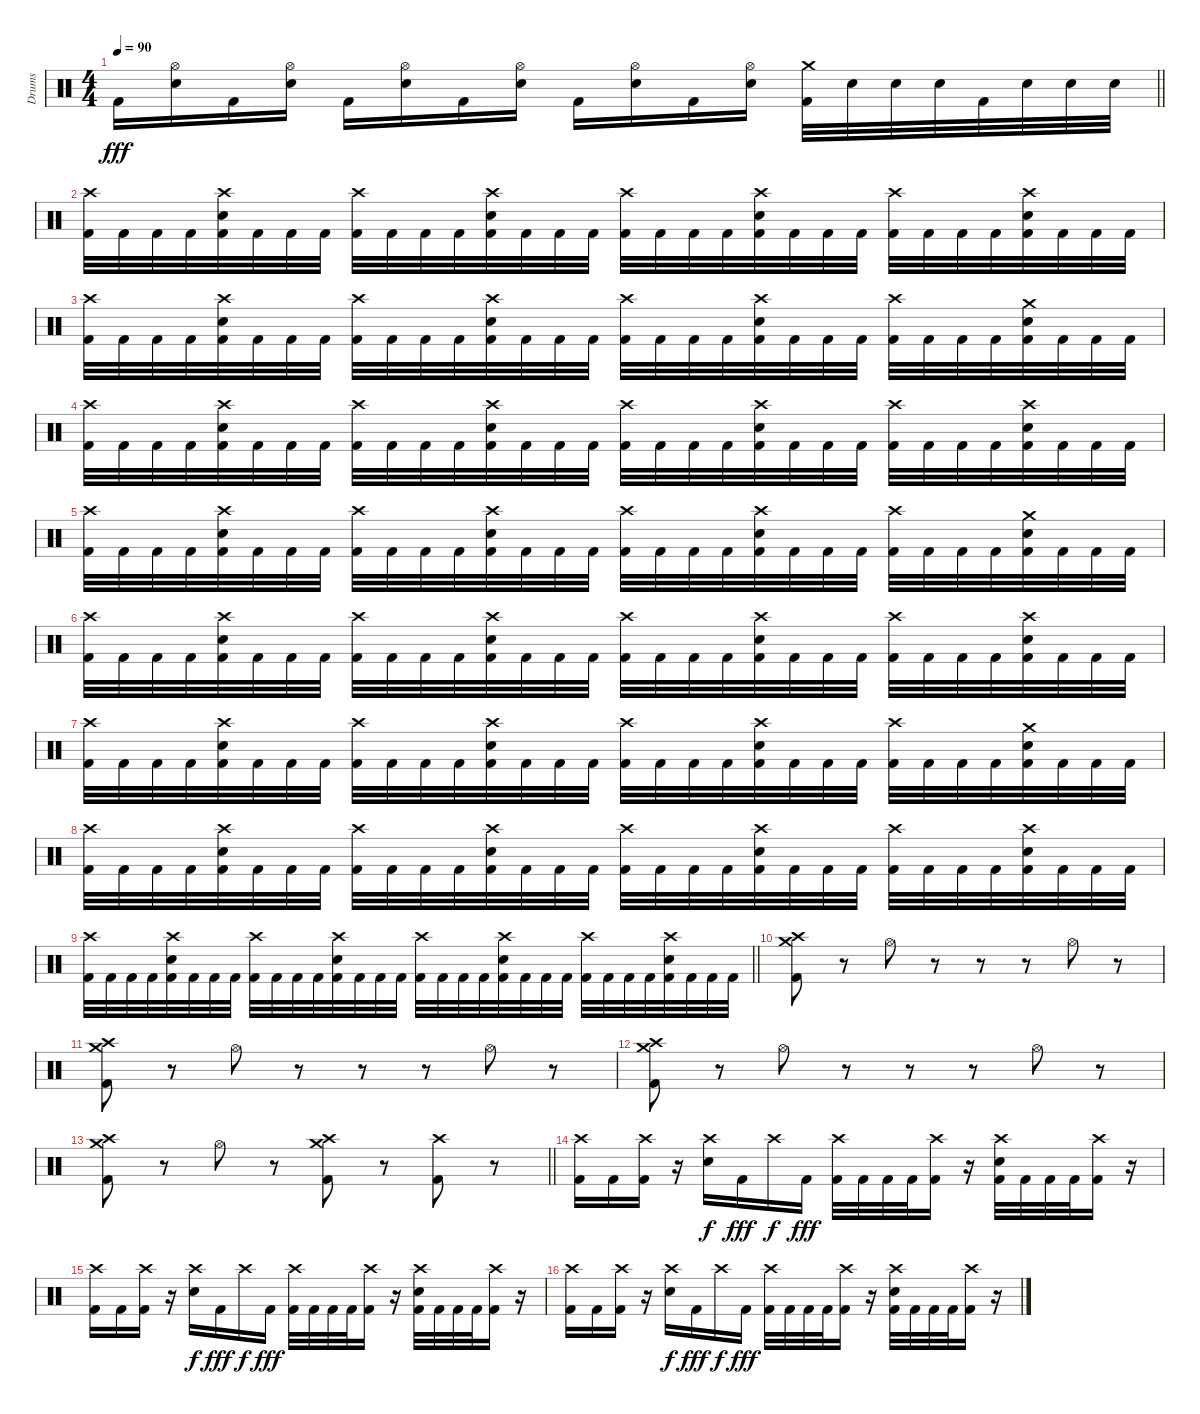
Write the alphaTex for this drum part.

\track ("Drums" "Drums") {instrument percussion}
\staff {score}
\articulation defaults
\ts (4 4)
\tempo 90
\clef neutral
\barLineRight lightlight
\ks c "Kick (hit) 2".16{dy fff}
("Hi-Hat (open)" "Electric Snare (hit)").16 "Kick (hit) 2".16 ("Hi-Hat (open)" "Electric Snare (hit)").16 "Kick (hit) 2".16 ("Hi-Hat (open)" "Electric Snare (hit)").16 "Kick (hit) 2".16 ("Hi-Hat (open)" "Electric Snare (hit)").16 "Kick (hit) 2".16 ("Hi-Hat (open)" "Electric Snare (hit)").16 "Kick (hit) 2".16 ("Hi-Hat (open)" "Electric Snare (hit)").16 ("Crash medium (hit)" "Kick (hit) 2").32 "Electric Snare (hit)".32 "Electric Snare (hit)".32 "Electric Snare (hit)".32 "Kick (hit) 2".32 "Electric Snare (hit)".32 "Electric Snare (hit)".32 "Electric Snare (hit)".32 |
\section ("" "")
("Crash high (hit)" "Kick (hit) 2").32 "Kick (hit) 2".32 "Kick (hit) 2".32 "Kick (hit) 2".32 ("Crash high (hit)" "Electric Snare (hit)" "Kick (hit) 2").32 "Kick (hit) 2".32 "Kick (hit) 2".32 "Kick (hit) 2".32 ("Crash high (hit)" "Kick (hit) 2").32 "Kick (hit) 2".32 "Kick (hit) 2".32 "Kick (hit) 2".32 ("Crash high (hit)" "Electric Snare (hit)" "Kick (hit) 2").32 "Kick (hit) 2".32 "Kick (hit) 2".32 "Kick (hit) 2".32 ("Crash high (hit)" "Kick (hit) 2").32 "Kick (hit) 2".32 "Kick (hit) 2".32 "Kick (hit) 2".32 ("Crash high (hit)" "Electric Snare (hit)" "Kick (hit) 2").32 "Kick (hit) 2".32 "Kick (hit) 2".32 "Kick (hit) 2".32 ("Crash high (hit)" "Kick (hit) 2").32 "Kick (hit) 2".32 "Kick (hit) 2".32 "Kick (hit) 2".32 ("Crash high (hit)" "Electric Snare (hit)" "Kick (hit) 2").32 "Kick (hit) 2".32 "Kick (hit) 2".32 "Kick (hit) 2".32 |
("Crash high (hit)" "Kick (hit) 2").32 "Kick (hit) 2".32 "Kick (hit) 2".32 "Kick (hit) 2".32 ("Crash high (hit)" "Electric Snare (hit)" "Kick (hit) 2").32 "Kick (hit) 2".32 "Kick (hit) 2".32 "Kick (hit) 2".32 ("Crash high (hit)" "Kick (hit) 2").32 "Kick (hit) 2".32 "Kick (hit) 2".32 "Kick (hit) 2".32 ("Crash high (hit)" "Electric Snare (hit)" "Kick (hit) 2").32 "Kick (hit) 2".32 "Kick (hit) 2".32 "Kick (hit) 2".32 ("Crash high (hit)" "Kick (hit) 2").32 "Kick (hit) 2".32 "Kick (hit) 2".32 "Kick (hit) 2".32 ("Crash high (hit)" "Electric Snare (hit)" "Kick (hit) 2").32 "Kick (hit) 2".32 "Kick (hit) 2".32 "Kick (hit) 2".32 ("Crash high (hit)" "Kick (hit) 2").32 "Kick (hit) 2".32 "Kick (hit) 2".32 "Kick (hit) 2".32 ("Crash medium (hit)" "Electric Snare (hit)" "Kick (hit) 2").32 "Kick (hit) 2".32 "Kick (hit) 2".32 "Kick (hit) 2".32 |
("Crash high (hit)" "Kick (hit) 2").32 "Kick (hit) 2".32 "Kick (hit) 2".32 "Kick (hit) 2".32 ("Crash high (hit)" "Electric Snare (hit)" "Kick (hit) 2").32 "Kick (hit) 2".32 "Kick (hit) 2".32 "Kick (hit) 2".32 ("Crash high (hit)" "Kick (hit) 2").32 "Kick (hit) 2".32 "Kick (hit) 2".32 "Kick (hit) 2".32 ("Crash high (hit)" "Electric Snare (hit)" "Kick (hit) 2").32 "Kick (hit) 2".32 "Kick (hit) 2".32 "Kick (hit) 2".32 ("Crash high (hit)" "Kick (hit) 2").32 "Kick (hit) 2".32 "Kick (hit) 2".32 "Kick (hit) 2".32 ("Crash high (hit)" "Electric Snare (hit)" "Kick (hit) 2").32 "Kick (hit) 2".32 "Kick (hit) 2".32 "Kick (hit) 2".32 ("Crash high (hit)" "Kick (hit) 2").32 "Kick (hit) 2".32 "Kick (hit) 2".32 "Kick (hit) 2".32 ("Crash high (hit)" "Electric Snare (hit)" "Kick (hit) 2").32 "Kick (hit) 2".32 "Kick (hit) 2".32 "Kick (hit) 2".32 |
("Crash high (hit)" "Kick (hit) 2").32 "Kick (hit) 2".32 "Kick (hit) 2".32 "Kick (hit) 2".32 ("Crash high (hit)" "Electric Snare (hit)" "Kick (hit) 2").32 "Kick (hit) 2".32 "Kick (hit) 2".32 "Kick (hit) 2".32 ("Crash high (hit)" "Kick (hit) 2").32 "Kick (hit) 2".32 "Kick (hit) 2".32 "Kick (hit) 2".32 ("Crash high (hit)" "Electric Snare (hit)" "Kick (hit) 2").32 "Kick (hit) 2".32 "Kick (hit) 2".32 "Kick (hit) 2".32 ("Crash high (hit)" "Kick (hit) 2").32 "Kick (hit) 2".32 "Kick (hit) 2".32 "Kick (hit) 2".32 ("Crash high (hit)" "Electric Snare (hit)" "Kick (hit) 2").32 "Kick (hit) 2".32 "Kick (hit) 2".32 "Kick (hit) 2".32 ("Crash high (hit)" "Kick (hit) 2").32 "Kick (hit) 2".32 "Kick (hit) 2".32 "Kick (hit) 2".32 ("Crash medium (hit)" "Electric Snare (hit)" "Kick (hit) 2").32 "Kick (hit) 2".32 "Kick (hit) 2".32 "Kick (hit) 2".32 |
("Crash high (hit)" "Kick (hit) 2").32 "Kick (hit) 2".32 "Kick (hit) 2".32 "Kick (hit) 2".32 ("Crash high (hit)" "Electric Snare (hit)" "Kick (hit) 2").32 "Kick (hit) 2".32 "Kick (hit) 2".32 "Kick (hit) 2".32 ("Crash high (hit)" "Kick (hit) 2").32 "Kick (hit) 2".32 "Kick (hit) 2".32 "Kick (hit) 2".32 ("Crash high (hit)" "Electric Snare (hit)" "Kick (hit) 2").32 "Kick (hit) 2".32 "Kick (hit) 2".32 "Kick (hit) 2".32 ("Crash high (hit)" "Kick (hit) 2").32 "Kick (hit) 2".32 "Kick (hit) 2".32 "Kick (hit) 2".32 ("Crash high (hit)" "Electric Snare (hit)" "Kick (hit) 2").32 "Kick (hit) 2".32 "Kick (hit) 2".32 "Kick (hit) 2".32 ("Crash high (hit)" "Kick (hit) 2").32 "Kick (hit) 2".32 "Kick (hit) 2".32 "Kick (hit) 2".32 ("Crash high (hit)" "Electric Snare (hit)" "Kick (hit) 2").32 "Kick (hit) 2".32 "Kick (hit) 2".32 "Kick (hit) 2".32 |
("Crash high (hit)" "Kick (hit) 2").32 "Kick (hit) 2".32 "Kick (hit) 2".32 "Kick (hit) 2".32 ("Crash high (hit)" "Electric Snare (hit)" "Kick (hit) 2").32 "Kick (hit) 2".32 "Kick (hit) 2".32 "Kick (hit) 2".32 ("Crash high (hit)" "Kick (hit) 2").32 "Kick (hit) 2".32 "Kick (hit) 2".32 "Kick (hit) 2".32 ("Crash high (hit)" "Electric Snare (hit)" "Kick (hit) 2").32 "Kick (hit) 2".32 "Kick (hit) 2".32 "Kick (hit) 2".32 ("Crash high (hit)" "Kick (hit) 2").32 "Kick (hit) 2".32 "Kick (hit) 2".32 "Kick (hit) 2".32 ("Crash high (hit)" "Electric Snare (hit)" "Kick (hit) 2").32 "Kick (hit) 2".32 "Kick (hit) 2".32 "Kick (hit) 2".32 ("Crash high (hit)" "Kick (hit) 2").32 "Kick (hit) 2".32 "Kick (hit) 2".32 "Kick (hit) 2".32 ("Crash medium (hit)" "Electric Snare (hit)" "Kick (hit) 2").32 "Kick (hit) 2".32 "Kick (hit) 2".32 "Kick (hit) 2".32 |
("Crash high (hit)" "Kick (hit) 2").32 "Kick (hit) 2".32 "Kick (hit) 2".32 "Kick (hit) 2".32 ("Crash high (hit)" "Electric Snare (hit)" "Kick (hit) 2").32 "Kick (hit) 2".32 "Kick (hit) 2".32 "Kick (hit) 2".32 ("Crash high (hit)" "Kick (hit) 2").32 "Kick (hit) 2".32 "Kick (hit) 2".32 "Kick (hit) 2".32 ("Crash high (hit)" "Electric Snare (hit)" "Kick (hit) 2").32 "Kick (hit) 2".32 "Kick (hit) 2".32 "Kick (hit) 2".32 ("Crash high (hit)" "Kick (hit) 2").32 "Kick (hit) 2".32 "Kick (hit) 2".32 "Kick (hit) 2".32 ("Crash high (hit)" "Electric Snare (hit)" "Kick (hit) 2").32 "Kick (hit) 2".32 "Kick (hit) 2".32 "Kick (hit) 2".32 ("Crash high (hit)" "Kick (hit) 2").32 "Kick (hit) 2".32 "Kick (hit) 2".32 "Kick (hit) 2".32 ("Crash high (hit)" "Electric Snare (hit)" "Kick (hit) 2").32 "Kick (hit) 2".32 "Kick (hit) 2".32 "Kick (hit) 2".32 |
\barLineRight lightlight
("Crash high (hit)" "Kick (hit) 2").32 "Kick (hit) 2".32 "Kick (hit) 2".32 "Kick (hit) 2".32 ("Crash high (hit)" "Electric Snare (hit)" "Kick (hit) 2").32 "Kick (hit) 2".32 "Kick (hit) 2".32 "Kick (hit) 2".32 ("Crash high (hit)" "Kick (hit) 2").32 "Kick (hit) 2".32 "Kick (hit) 2".32 "Kick (hit) 2".32 ("Crash high (hit)" "Electric Snare (hit)" "Kick (hit) 2").32 "Kick (hit) 2".32 "Kick (hit) 2".32 "Kick (hit) 2".32 ("Crash high (hit)" "Kick (hit) 2").32 "Kick (hit) 2".32 "Kick (hit) 2".32 "Kick (hit) 2".32 ("Crash high (hit)" "Electric Snare (hit)" "Kick (hit) 2").32 "Kick (hit) 2".32 "Kick (hit) 2".32 "Kick (hit) 2".32 ("Crash high (hit)" "Kick (hit) 2").32 "Kick (hit) 2".32 "Kick (hit) 2".32 "Kick (hit) 2".32 ("Crash high (hit)" "Electric Snare (hit)" "Kick (hit) 2").32 "Kick (hit) 2".32 "Kick (hit) 2".32 "Kick (hit) 2".32 |
\section ("" "")
("Crash high (hit)" "Crash medium (hit)" "Kick (hit) 2").8 r.8 "Hi-Hat (open)".8 r.8 r.8 r.8 "Hi-Hat (open)".8 r.8 |
("Crash high (hit)" "Crash medium (hit)" "Kick (hit) 2").8 r.8 "Hi-Hat (open)".8 r.8 r.8 r.8 "Hi-Hat (open)".8 r.8 |
("Crash high (hit)" "Crash medium (hit)" "Kick (hit) 2").8 r.8 "Hi-Hat (open)".8 r.8 r.8 r.8 "Hi-Hat (open)".8 r.8 |
\barLineRight lightlight
("Crash high (hit)" "Crash medium (hit)" "Kick (hit) 2").8 r.8 "Hi-Hat (open)".8 r.8 ("Crash high (hit)" "Crash medium (hit)" "Kick (hit) 2").8 r.8 ("Crash high (hit)" "Kick (hit) 2").8 r.8 |
\section ("" "")
("Crash high (hit)" "Kick (hit) 2").16 "Kick (hit) 2".16 ("Crash high (hit)" "Kick (hit) 2").16 r.16 ("Crash high (hit)" "Electric Snare (hit)").16{dy f} "Kick (hit) 2".16{dy fff} "Crash high (hit)".16{dy f} "Kick (hit) 2".16{dy fff} ("Crash high (hit)" "Kick (hit) 2").32 "Kick (hit) 2".32 "Kick (hit) 2".32 "Kick (hit) 2".32 ("Crash high (hit)" "Kick (hit) 2").16 r.16 ("Crash high (hit)" "Electric Snare (hit)" "Kick (hit) 2").32 "Kick (hit) 2".32 "Kick (hit) 2".32 "Kick (hit) 2".32 ("Crash high (hit)" "Kick (hit) 2").16 r.16 |
("Crash high (hit)" "Kick (hit) 2").16 "Kick (hit) 2".16 ("Crash high (hit)" "Kick (hit) 2").16 r.16 ("Crash high (hit)" "Electric Snare (hit)").16{dy f} "Kick (hit) 2".16{dy fff} "Crash high (hit)".16{dy f} "Kick (hit) 2".16{dy fff} ("Crash high (hit)" "Kick (hit) 2").32 "Kick (hit) 2".32 "Kick (hit) 2".32 "Kick (hit) 2".32 ("Crash high (hit)" "Kick (hit) 2").16 r.16 ("Crash high (hit)" "Electric Snare (hit)" "Kick (hit) 2").32 "Kick (hit) 2".32 "Kick (hit) 2".32 "Kick (hit) 2".32 ("Crash high (hit)" "Kick (hit) 2").16 r.16 |
("Crash high (hit)" "Kick (hit) 2").16 "Kick (hit) 2".16 ("Crash high (hit)" "Kick (hit) 2").16 r.16 ("Crash high (hit)" "Electric Snare (hit)").16{dy f} "Kick (hit) 2".16{dy fff} "Crash high (hit)".16{dy f} "Kick (hit) 2".16{dy fff} ("Crash high (hit)" "Kick (hit) 2").32 "Kick (hit) 2".32 "Kick (hit) 2".32 "Kick (hit) 2".32 ("Crash high (hit)" "Kick (hit) 2").16 r.16 ("Crash high (hit)" "Electric Snare (hit)" "Kick (hit) 2").32 "Kick (hit) 2".32 "Kick (hit) 2".32 "Kick (hit) 2".32 ("Crash high (hit)" "Kick (hit) 2").16 r.16
